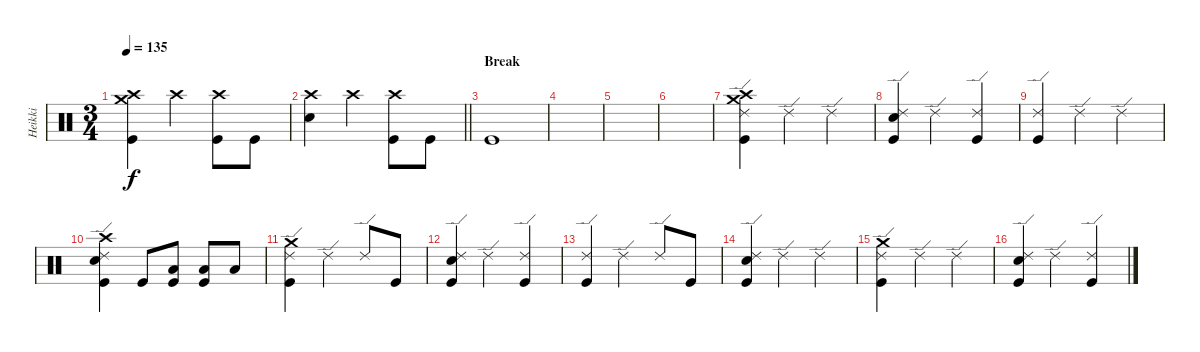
\track ("Heikki" "Heikki") {instrument percussion}
\staff {score}
\articulation defaults
\ts (3 4)
\tempo 135
\clef neutral
\ks c
("Crash high (hit)" "Crash medium (hit)" "Kick (hit)").4{dy f} "Crash high (hit)".4 ("Crash high (hit)" "Kick (hit)").8 "Kick (hit)".8 |
\barLineRight lightlight
("Crash high (hit)" "Snare (hit) 2").4 "Crash high (hit)".4 ("Crash high (hit)" "Kick (hit)").8 "Kick (hit)".8 |
\section ("" "Break")
"Kick (hit)".1 |
|
|
|
("Ride (edge) 2" "Crash medium (hit)" "Crash high (hit)" "Kick (hit)").4 "Ride (edge) 2".4 "Ride (edge) 2".4 |
("Ride (edge) 2" "Snare (hit) 2" "Kick (hit)").4 "Ride (edge) 2".4 ("Ride (edge) 2" "Kick (hit)").4 |
("Ride (edge) 2" "Kick (hit)").4 "Ride (edge) 2".4 "Ride (edge) 2".4 |
("Ride (edge) 2" "Crash high (hit)" "Snare (hit) 2" "Kick (hit)").4 "Kick (hit)".8 ("Low Tom (hit)" "Kick (hit)").8 ("Low Tom (hit)" "Kick (hit)").8 "Low Floor Tom (hit)".8 |
("Ride (edge) 2" "Crash medium (hit)" "Kick (hit)").4 "Ride (edge) 2".4 "Ride (edge) 2".8 "Kick (hit)".8 |
("Ride (edge) 2" "Snare (hit) 2" "Kick (hit)").4 "Ride (edge) 2".4 ("Ride (edge) 2" "Kick (hit)").4 |
("Ride (edge) 2" "Kick (hit)").4 "Ride (edge) 2".4 "Ride (edge) 2".8 "Kick (hit)".8 |
("Ride (edge) 2" "Snare (hit) 2" "Kick (hit)").4 "Ride (edge) 2".4 "Ride (edge) 2".4 |
("Ride (edge) 2" "Crash medium (hit)" "Kick (hit)").4 "Ride (edge) 2".4 "Ride (edge) 2".4 |
("Ride (edge) 2" "Snare (hit) 2" "Kick (hit)").4 "Ride (edge) 2".4 ("Ride (edge) 2" "Kick (hit)").4
